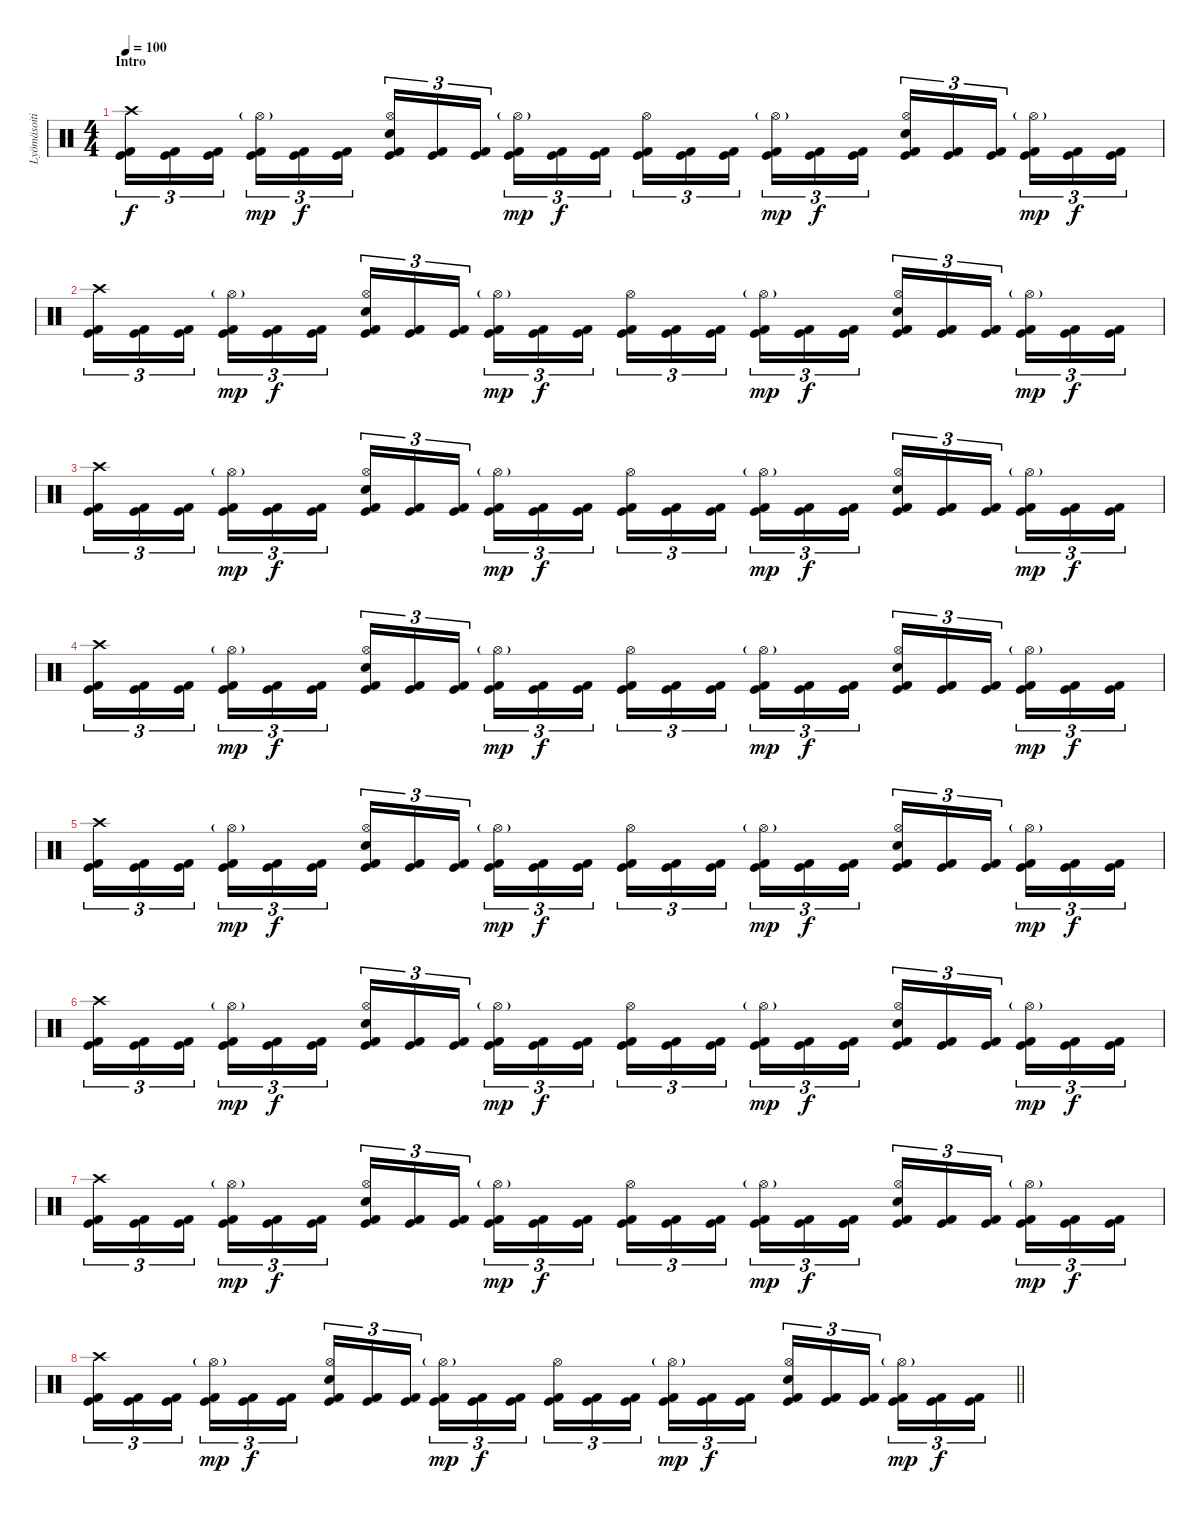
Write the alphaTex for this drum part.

\track ("Lyömäsoitin" "Lyömäsoiti") {instrument percussion}
\staff {score}
\articulation defaults
\ts (4 4)
\section ("" "Intro")
\tempo 100
\clef neutral
\ks c
("Crash high (hit)" "Kick (hit) 2" "Kick (hit)").16{tu (3 2) dy f} ("Kick (hit) 2" "Kick (hit)").16{tu (3 2)} ("Kick (hit) 2" "Kick (hit)").16{tu (3 2) beam splitsecondary} ("Hi-Hat (open)"{g} "Kick (hit) 2" "Kick (hit)").16{tu (3 2) dy mp} ("Kick (hit) 2" "Kick (hit)").16{tu (3 2) dy f} ("Kick (hit) 2" "Kick (hit)").16{tu (3 2)} ("Electric Snare (hit)" "Hi-Hat (open)" "Kick (hit) 2" "Kick (hit)").16{tu (3 2)} ("Kick (hit) 2" "Kick (hit)").16{tu (3 2)} ("Kick (hit) 2" "Kick (hit)").16{tu (3 2) beam splitsecondary} ("Hi-Hat (open)"{g} "Kick (hit) 2" "Kick (hit)").16{tu (3 2) dy mp} ("Kick (hit) 2" "Kick (hit)").16{tu (3 2) dy f} ("Kick (hit) 2" "Kick (hit)").16{tu (3 2)} ("Hi-Hat (open)" "Kick (hit) 2" "Kick (hit)").16{tu (3 2)} ("Kick (hit) 2" "Kick (hit)").16{tu (3 2)} ("Kick (hit) 2" "Kick (hit)").16{tu (3 2) beam splitsecondary} ("Hi-Hat (open)"{g} "Kick (hit) 2" "Kick (hit)").16{tu (3 2) dy mp} ("Kick (hit) 2" "Kick (hit)").16{tu (3 2) dy f} ("Kick (hit) 2" "Kick (hit)").16{tu (3 2)} ("Electric Snare (hit)" "Hi-Hat (open)" "Kick (hit) 2" "Kick (hit)").16{tu (3 2)} ("Kick (hit) 2" "Kick (hit)").16{tu (3 2)} ("Kick (hit) 2" "Kick (hit)").16{tu (3 2) beam splitsecondary} ("Hi-Hat (open)"{g} "Kick (hit) 2" "Kick (hit)").16{tu (3 2) dy mp} ("Kick (hit) 2" "Kick (hit)").16{tu (3 2) dy f} ("Kick (hit) 2" "Kick (hit)").16{tu (3 2)} |
("Crash high (hit)" "Kick (hit) 2" "Kick (hit)").16{tu (3 2)} ("Kick (hit) 2" "Kick (hit)").16{tu (3 2)} ("Kick (hit) 2" "Kick (hit)").16{tu (3 2) beam splitsecondary} ("Hi-Hat (open)"{g} "Kick (hit) 2" "Kick (hit)").16{tu (3 2) dy mp} ("Kick (hit) 2" "Kick (hit)").16{tu (3 2) dy f} ("Kick (hit) 2" "Kick (hit)").16{tu (3 2)} ("Electric Snare (hit)" "Hi-Hat (open)" "Kick (hit) 2" "Kick (hit)").16{tu (3 2)} ("Kick (hit) 2" "Kick (hit)").16{tu (3 2)} ("Kick (hit) 2" "Kick (hit)").16{tu (3 2) beam splitsecondary} ("Hi-Hat (open)"{g} "Kick (hit) 2" "Kick (hit)").16{tu (3 2) dy mp} ("Kick (hit) 2" "Kick (hit)").16{tu (3 2) dy f} ("Kick (hit) 2" "Kick (hit)").16{tu (3 2)} ("Hi-Hat (open)" "Kick (hit) 2" "Kick (hit)").16{tu (3 2)} ("Kick (hit) 2" "Kick (hit)").16{tu (3 2)} ("Kick (hit) 2" "Kick (hit)").16{tu (3 2) beam splitsecondary} ("Hi-Hat (open)"{g} "Kick (hit) 2" "Kick (hit)").16{tu (3 2) dy mp} ("Kick (hit) 2" "Kick (hit)").16{tu (3 2) dy f} ("Kick (hit) 2" "Kick (hit)").16{tu (3 2)} ("Electric Snare (hit)" "Hi-Hat (open)" "Kick (hit) 2" "Kick (hit)").16{tu (3 2)} ("Kick (hit) 2" "Kick (hit)").16{tu (3 2)} ("Kick (hit) 2" "Kick (hit)").16{tu (3 2) beam splitsecondary} ("Hi-Hat (open)"{g} "Kick (hit) 2" "Kick (hit)").16{tu (3 2) dy mp} ("Kick (hit) 2" "Kick (hit)").16{tu (3 2) dy f} ("Kick (hit) 2" "Kick (hit)").16{tu (3 2)} |
("Crash high (hit)" "Kick (hit) 2" "Kick (hit)").16{tu (3 2)} ("Kick (hit) 2" "Kick (hit)").16{tu (3 2)} ("Kick (hit) 2" "Kick (hit)").16{tu (3 2) beam splitsecondary} ("Hi-Hat (open)"{g} "Kick (hit) 2" "Kick (hit)").16{tu (3 2) dy mp} ("Kick (hit) 2" "Kick (hit)").16{tu (3 2) dy f} ("Kick (hit) 2" "Kick (hit)").16{tu (3 2)} ("Electric Snare (hit)" "Hi-Hat (open)" "Kick (hit) 2" "Kick (hit)").16{tu (3 2)} ("Kick (hit) 2" "Kick (hit)").16{tu (3 2)} ("Kick (hit) 2" "Kick (hit)").16{tu (3 2) beam splitsecondary} ("Hi-Hat (open)"{g} "Kick (hit) 2" "Kick (hit)").16{tu (3 2) dy mp} ("Kick (hit) 2" "Kick (hit)").16{tu (3 2) dy f} ("Kick (hit) 2" "Kick (hit)").16{tu (3 2)} ("Hi-Hat (open)" "Kick (hit) 2" "Kick (hit)").16{tu (3 2)} ("Kick (hit) 2" "Kick (hit)").16{tu (3 2)} ("Kick (hit) 2" "Kick (hit)").16{tu (3 2) beam splitsecondary} ("Hi-Hat (open)"{g} "Kick (hit) 2" "Kick (hit)").16{tu (3 2) dy mp} ("Kick (hit) 2" "Kick (hit)").16{tu (3 2) dy f} ("Kick (hit) 2" "Kick (hit)").16{tu (3 2)} ("Electric Snare (hit)" "Hi-Hat (open)" "Kick (hit) 2" "Kick (hit)").16{tu (3 2)} ("Kick (hit) 2" "Kick (hit)").16{tu (3 2)} ("Kick (hit) 2" "Kick (hit)").16{tu (3 2) beam splitsecondary} ("Hi-Hat (open)"{g} "Kick (hit) 2" "Kick (hit)").16{tu (3 2) dy mp} ("Kick (hit) 2" "Kick (hit)").16{tu (3 2) dy f} ("Kick (hit) 2" "Kick (hit)").16{tu (3 2)} |
("Crash high (hit)" "Kick (hit) 2" "Kick (hit)").16{tu (3 2)} ("Kick (hit) 2" "Kick (hit)").16{tu (3 2)} ("Kick (hit) 2" "Kick (hit)").16{tu (3 2) beam splitsecondary} ("Hi-Hat (open)"{g} "Kick (hit) 2" "Kick (hit)").16{tu (3 2) dy mp} ("Kick (hit) 2" "Kick (hit)").16{tu (3 2) dy f} ("Kick (hit) 2" "Kick (hit)").16{tu (3 2)} ("Electric Snare (hit)" "Hi-Hat (open)" "Kick (hit) 2" "Kick (hit)").16{tu (3 2)} ("Kick (hit) 2" "Kick (hit)").16{tu (3 2)} ("Kick (hit) 2" "Kick (hit)").16{tu (3 2) beam splitsecondary} ("Hi-Hat (open)"{g} "Kick (hit) 2" "Kick (hit)").16{tu (3 2) dy mp} ("Kick (hit) 2" "Kick (hit)").16{tu (3 2) dy f} ("Kick (hit) 2" "Kick (hit)").16{tu (3 2)} ("Hi-Hat (open)" "Kick (hit) 2" "Kick (hit)").16{tu (3 2)} ("Kick (hit) 2" "Kick (hit)").16{tu (3 2)} ("Kick (hit) 2" "Kick (hit)").16{tu (3 2) beam splitsecondary} ("Hi-Hat (open)"{g} "Kick (hit) 2" "Kick (hit)").16{tu (3 2) dy mp} ("Kick (hit) 2" "Kick (hit)").16{tu (3 2) dy f} ("Kick (hit) 2" "Kick (hit)").16{tu (3 2)} ("Electric Snare (hit)" "Hi-Hat (open)" "Kick (hit) 2" "Kick (hit)").16{tu (3 2)} ("Kick (hit) 2" "Kick (hit)").16{tu (3 2)} ("Kick (hit) 2" "Kick (hit)").16{tu (3 2) beam splitsecondary} ("Hi-Hat (open)"{g} "Kick (hit) 2" "Kick (hit)").16{tu (3 2) dy mp} ("Kick (hit) 2" "Kick (hit)").16{tu (3 2) dy f} ("Kick (hit) 2" "Kick (hit)").16{tu (3 2)} |
("Crash high (hit)" "Kick (hit) 2" "Kick (hit)").16{tu (3 2)} ("Kick (hit) 2" "Kick (hit)").16{tu (3 2)} ("Kick (hit) 2" "Kick (hit)").16{tu (3 2) beam splitsecondary} ("Hi-Hat (open)"{g} "Kick (hit) 2" "Kick (hit)").16{tu (3 2) dy mp} ("Kick (hit) 2" "Kick (hit)").16{tu (3 2) dy f} ("Kick (hit) 2" "Kick (hit)").16{tu (3 2)} ("Electric Snare (hit)" "Hi-Hat (open)" "Kick (hit) 2" "Kick (hit)").16{tu (3 2)} ("Kick (hit) 2" "Kick (hit)").16{tu (3 2)} ("Kick (hit) 2" "Kick (hit)").16{tu (3 2) beam splitsecondary} ("Hi-Hat (open)"{g} "Kick (hit) 2" "Kick (hit)").16{tu (3 2) dy mp} ("Kick (hit) 2" "Kick (hit)").16{tu (3 2) dy f} ("Kick (hit) 2" "Kick (hit)").16{tu (3 2)} ("Hi-Hat (open)" "Kick (hit) 2" "Kick (hit)").16{tu (3 2)} ("Kick (hit) 2" "Kick (hit)").16{tu (3 2)} ("Kick (hit) 2" "Kick (hit)").16{tu (3 2) beam splitsecondary} ("Hi-Hat (open)"{g} "Kick (hit) 2" "Kick (hit)").16{tu (3 2) dy mp} ("Kick (hit) 2" "Kick (hit)").16{tu (3 2) dy f} ("Kick (hit) 2" "Kick (hit)").16{tu (3 2)} ("Electric Snare (hit)" "Hi-Hat (open)" "Kick (hit) 2" "Kick (hit)").16{tu (3 2)} ("Kick (hit) 2" "Kick (hit)").16{tu (3 2)} ("Kick (hit) 2" "Kick (hit)").16{tu (3 2) beam splitsecondary} ("Hi-Hat (open)"{g} "Kick (hit) 2" "Kick (hit)").16{tu (3 2) dy mp} ("Kick (hit) 2" "Kick (hit)").16{tu (3 2) dy f} ("Kick (hit) 2" "Kick (hit)").16{tu (3 2)} |
("Crash high (hit)" "Kick (hit) 2" "Kick (hit)").16{tu (3 2)} ("Kick (hit) 2" "Kick (hit)").16{tu (3 2)} ("Kick (hit) 2" "Kick (hit)").16{tu (3 2) beam splitsecondary} ("Hi-Hat (open)"{g} "Kick (hit) 2" "Kick (hit)").16{tu (3 2) dy mp} ("Kick (hit) 2" "Kick (hit)").16{tu (3 2) dy f} ("Kick (hit) 2" "Kick (hit)").16{tu (3 2)} ("Electric Snare (hit)" "Hi-Hat (open)" "Kick (hit) 2" "Kick (hit)").16{tu (3 2)} ("Kick (hit) 2" "Kick (hit)").16{tu (3 2)} ("Kick (hit) 2" "Kick (hit)").16{tu (3 2) beam splitsecondary} ("Hi-Hat (open)"{g} "Kick (hit) 2" "Kick (hit)").16{tu (3 2) dy mp} ("Kick (hit) 2" "Kick (hit)").16{tu (3 2) dy f} ("Kick (hit) 2" "Kick (hit)").16{tu (3 2)} ("Hi-Hat (open)" "Kick (hit) 2" "Kick (hit)").16{tu (3 2)} ("Kick (hit) 2" "Kick (hit)").16{tu (3 2)} ("Kick (hit) 2" "Kick (hit)").16{tu (3 2) beam splitsecondary} ("Hi-Hat (open)"{g} "Kick (hit) 2" "Kick (hit)").16{tu (3 2) dy mp} ("Kick (hit) 2" "Kick (hit)").16{tu (3 2) dy f} ("Kick (hit) 2" "Kick (hit)").16{tu (3 2)} ("Electric Snare (hit)" "Hi-Hat (open)" "Kick (hit) 2" "Kick (hit)").16{tu (3 2)} ("Kick (hit) 2" "Kick (hit)").16{tu (3 2)} ("Kick (hit) 2" "Kick (hit)").16{tu (3 2) beam splitsecondary} ("Hi-Hat (open)"{g} "Kick (hit) 2" "Kick (hit)").16{tu (3 2) dy mp} ("Kick (hit) 2" "Kick (hit)").16{tu (3 2) dy f} ("Kick (hit) 2" "Kick (hit)").16{tu (3 2)} |
("Crash high (hit)" "Kick (hit) 2" "Kick (hit)").16{tu (3 2)} ("Kick (hit) 2" "Kick (hit)").16{tu (3 2)} ("Kick (hit) 2" "Kick (hit)").16{tu (3 2) beam splitsecondary} ("Hi-Hat (open)"{g} "Kick (hit) 2" "Kick (hit)").16{tu (3 2) dy mp} ("Kick (hit) 2" "Kick (hit)").16{tu (3 2) dy f} ("Kick (hit) 2" "Kick (hit)").16{tu (3 2)} ("Electric Snare (hit)" "Hi-Hat (open)" "Kick (hit) 2" "Kick (hit)").16{tu (3 2)} ("Kick (hit) 2" "Kick (hit)").16{tu (3 2)} ("Kick (hit) 2" "Kick (hit)").16{tu (3 2) beam splitsecondary} ("Hi-Hat (open)"{g} "Kick (hit) 2" "Kick (hit)").16{tu (3 2) dy mp} ("Kick (hit) 2" "Kick (hit)").16{tu (3 2) dy f} ("Kick (hit) 2" "Kick (hit)").16{tu (3 2)} ("Hi-Hat (open)" "Kick (hit) 2" "Kick (hit)").16{tu (3 2)} ("Kick (hit) 2" "Kick (hit)").16{tu (3 2)} ("Kick (hit) 2" "Kick (hit)").16{tu (3 2) beam splitsecondary} ("Hi-Hat (open)"{g} "Kick (hit) 2" "Kick (hit)").16{tu (3 2) dy mp} ("Kick (hit) 2" "Kick (hit)").16{tu (3 2) dy f} ("Kick (hit) 2" "Kick (hit)").16{tu (3 2)} ("Electric Snare (hit)" "Hi-Hat (open)" "Kick (hit) 2" "Kick (hit)").16{tu (3 2)} ("Kick (hit) 2" "Kick (hit)").16{tu (3 2)} ("Kick (hit) 2" "Kick (hit)").16{tu (3 2) beam splitsecondary} ("Hi-Hat (open)"{g} "Kick (hit) 2" "Kick (hit)").16{tu (3 2) dy mp} ("Kick (hit) 2" "Kick (hit)").16{tu (3 2) dy f} ("Kick (hit) 2" "Kick (hit)").16{tu (3 2)} |
\barLineRight lightlight
("Crash high (hit)" "Kick (hit) 2" "Kick (hit)").16{tu (3 2)} ("Kick (hit) 2" "Kick (hit)").16{tu (3 2)} ("Kick (hit) 2" "Kick (hit)").16{tu (3 2) beam splitsecondary} ("Hi-Hat (open)"{g} "Kick (hit) 2" "Kick (hit)").16{tu (3 2) dy mp} ("Kick (hit) 2" "Kick (hit)").16{tu (3 2) dy f} ("Kick (hit) 2" "Kick (hit)").16{tu (3 2)} ("Electric Snare (hit)" "Hi-Hat (open)" "Kick (hit) 2" "Kick (hit)").16{tu (3 2)} ("Kick (hit) 2" "Kick (hit)").16{tu (3 2)} ("Kick (hit) 2" "Kick (hit)").16{tu (3 2) beam splitsecondary} ("Hi-Hat (open)"{g} "Kick (hit) 2" "Kick (hit)").16{tu (3 2) dy mp} ("Kick (hit) 2" "Kick (hit)").16{tu (3 2) dy f} ("Kick (hit) 2" "Kick (hit)").16{tu (3 2)} ("Hi-Hat (open)" "Kick (hit) 2" "Kick (hit)").16{tu (3 2)} ("Kick (hit) 2" "Kick (hit)").16{tu (3 2)} ("Kick (hit) 2" "Kick (hit)").16{tu (3 2) beam splitsecondary} ("Hi-Hat (open)"{g} "Kick (hit) 2" "Kick (hit)").16{tu (3 2) dy mp} ("Kick (hit) 2" "Kick (hit)").16{tu (3 2) dy f} ("Kick (hit) 2" "Kick (hit)").16{tu (3 2)} ("Electric Snare (hit)" "Hi-Hat (open)" "Kick (hit) 2" "Kick (hit)").16{tu (3 2)} ("Kick (hit) 2" "Kick (hit)").16{tu (3 2)} ("Kick (hit) 2" "Kick (hit)").16{tu (3 2) beam splitsecondary} ("Hi-Hat (open)"{g} "Kick (hit) 2" "Kick (hit)").16{tu (3 2) dy mp} ("Kick (hit) 2" "Kick (hit)").16{tu (3 2) dy f} ("Kick (hit) 2" "Kick (hit)").16{tu (3 2)}
